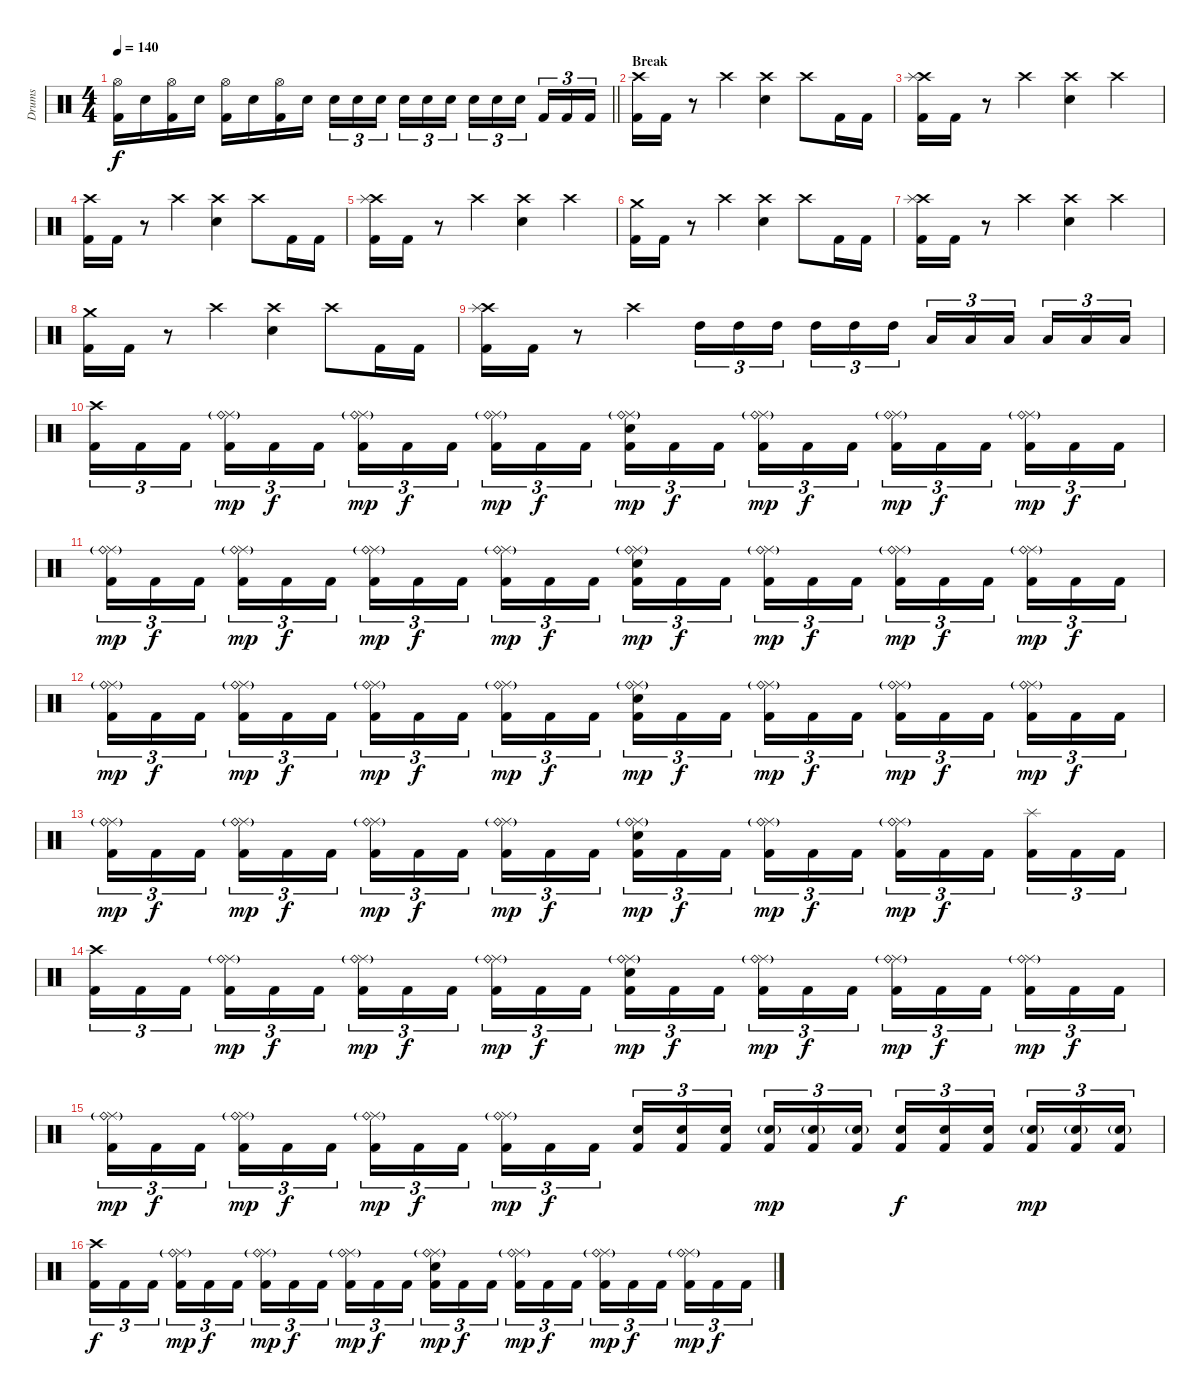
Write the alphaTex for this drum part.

\track ("Drums" "Drums") {instrument percussion}
\staff {score}
\articulation defaults
\ts (4 4)
\tempo 140
\clef neutral
\barLineRight lightlight
\ks c
("Hi-Hat (open)" "Kick (hit) 2").16{dy f} "Electric Snare (hit)".16 ("Hi-Hat (open)" "Kick (hit) 2").16 "Electric Snare (hit)".16 ("Hi-Hat (open)" "Kick (hit) 2").16 "Electric Snare (hit)".16 ("Hi-Hat (open)" "Kick (hit) 2").16 "Electric Snare (hit)".16 "Electric Snare (hit)".16{tu (3 2)} "Electric Snare (hit)".16{tu (3 2)} "Electric Snare (hit)".16{tu (3 2)} "Electric Snare (hit)".16{tu (3 2)} "Electric Snare (hit)".16{tu (3 2)} "Electric Snare (hit)".16{tu (3 2)} "Electric Snare (hit)".16{tu (3 2)} "Electric Snare (hit)".16{tu (3 2)} "Electric Snare (hit)".16{tu (3 2)} "Kick (hit) 2".16{tu (3 2)} "Kick (hit) 2".16{tu (3 2)} "Kick (hit) 2".16{tu (3 2)} |
\section ("" "Break")
("Crash high (hit)" "Kick (hit) 2").16 "Kick (hit) 2".16 r.8 "Crash high (hit)".4 ("Crash high (hit)" "Electric Snare (hit)").4 "Crash high (hit)".8 "Kick (hit) 2".16 "Kick (hit) 2".16 |
("Crash high (hit)" "Splash (hit)" "Kick (hit) 2").16 "Kick (hit) 2".16 r.8 "Crash high (hit)".4 ("Crash high (hit)" "Electric Snare (hit)").4 "Crash high (hit)".4 |
("Crash high (hit)" "Kick (hit) 2").16 "Kick (hit) 2".16 r.8 "Crash high (hit)".4 ("Crash high (hit)" "Electric Snare (hit)").4 "Crash high (hit)".8 "Kick (hit) 2".16 "Kick (hit) 2".16 |
("Crash high (hit)" "Splash (hit)" "Kick (hit) 2").16 "Kick (hit) 2".16 r.8 "Crash high (hit)".4 ("Crash high (hit)" "Electric Snare (hit)").4 "Crash high (hit)".4 |
("Crash medium (hit)" "Kick (hit) 2").16 "Kick (hit) 2".16 r.8 "Crash high (hit)".4 ("Crash high (hit)" "Electric Snare (hit)").4 "Crash high (hit)".8 "Kick (hit) 2".16 "Kick (hit) 2".16 |
("Crash high (hit)" "Splash (hit)" "Kick (hit) 2").16 "Kick (hit) 2".16 r.8 "Crash high (hit)".4 ("Crash high (hit)" "Electric Snare (hit)").4 "Crash high (hit)".4 |
("Crash medium (hit)" "Kick (hit) 2").16 "Kick (hit) 2".16 r.8 "Crash high (hit)".4 ("Crash high (hit)" "Electric Snare (hit)").4 "Crash high (hit)".8 "Kick (hit) 2".16 "Kick (hit) 2".16 |
("Crash high (hit)" "Splash (hit)" "Kick (hit) 2").16 "Kick (hit) 2".16 r.8 "Crash high (hit)".4 "High Tom (hit)".16{tu (3 2)} "High Tom (hit)".16{tu (3 2)} "High Tom (hit)".16{tu (3 2)} "High Tom (hit)".16{tu (3 2)} "High Tom (hit)".16{tu (3 2)} "High Tom (hit)".16{tu (3 2)} "Low Tom (hit)".16{tu (3 2)} "Low Tom (hit)".16{tu (3 2)} "Low Tom (hit)".16{tu (3 2)} "Low Tom (hit)".16{tu (3 2)} "Low Tom (hit)".16{tu (3 2)} "Low Tom (hit)".16{tu (3 2)} |
("Crash high (hit)" "Kick (hit) 2").16{tu (3 2)} "Kick (hit) 2".16{tu (3 2)} "Kick (hit) 2".16{tu (3 2)} ("Ride (middle)" "Ride (bell)"{g} "Kick (hit) 2").16{tu (3 2) dy mp} "Kick (hit) 2".16{tu (3 2) dy f} "Kick (hit) 2".16{tu (3 2)} ("Ride (middle)" "Ride (bell)"{g} "Kick (hit) 2").16{tu (3 2) dy mp} "Kick (hit) 2".16{tu (3 2) dy f} "Kick (hit) 2".16{tu (3 2)} ("Ride (middle)" "Ride (bell)"{g} "Kick (hit) 2").16{tu (3 2) dy mp} "Kick (hit) 2".16{tu (3 2) dy f} "Kick (hit) 2".16{tu (3 2)} ("Ride (middle)" "Ride (bell)"{g} "Electric Snare (hit)" "Kick (hit) 2").16{tu (3 2) dy mp} "Kick (hit) 2".16{tu (3 2) dy f} "Kick (hit) 2".16{tu (3 2)} ("Ride (middle)" "Ride (bell)"{g} "Kick (hit) 2").16{tu (3 2) dy mp} "Kick (hit) 2".16{tu (3 2) dy f} "Kick (hit) 2".16{tu (3 2)} ("Ride (middle)" "Ride (bell)"{g} "Kick (hit) 2").16{tu (3 2) dy mp} "Kick (hit) 2".16{tu (3 2) dy f} "Kick (hit) 2".16{tu (3 2)} ("Ride (middle)" "Ride (bell)"{g} "Kick (hit) 2").16{tu (3 2) dy mp} "Kick (hit) 2".16{tu (3 2) dy f} "Kick (hit) 2".16{tu (3 2)} |
("Ride (middle)" "Ride (bell)"{g} "Kick (hit) 2").16{tu (3 2) dy mp} "Kick (hit) 2".16{tu (3 2) dy f} "Kick (hit) 2".16{tu (3 2)} ("Ride (middle)" "Ride (bell)"{g} "Kick (hit) 2").16{tu (3 2) dy mp} "Kick (hit) 2".16{tu (3 2) dy f} "Kick (hit) 2".16{tu (3 2)} ("Ride (middle)" "Ride (bell)"{g} "Kick (hit) 2").16{tu (3 2) dy mp} "Kick (hit) 2".16{tu (3 2) dy f} "Kick (hit) 2".16{tu (3 2)} ("Ride (middle)" "Ride (bell)"{g} "Kick (hit) 2").16{tu (3 2) dy mp} "Kick (hit) 2".16{tu (3 2) dy f} "Kick (hit) 2".16{tu (3 2)} ("Ride (middle)" "Ride (bell)"{g} "Electric Snare (hit)" "Kick (hit) 2").16{tu (3 2) dy mp} "Kick (hit) 2".16{tu (3 2) dy f} "Kick (hit) 2".16{tu (3 2)} ("Ride (middle)" "Ride (bell)"{g} "Kick (hit) 2").16{tu (3 2) dy mp} "Kick (hit) 2".16{tu (3 2) dy f} "Kick (hit) 2".16{tu (3 2)} ("Ride (middle)" "Ride (bell)"{g} "Kick (hit) 2").16{tu (3 2) dy mp} "Kick (hit) 2".16{tu (3 2) dy f} "Kick (hit) 2".16{tu (3 2)} ("Ride (middle)" "Ride (bell)"{g} "Kick (hit) 2").16{tu (3 2) dy mp} "Kick (hit) 2".16{tu (3 2) dy f} "Kick (hit) 2".16{tu (3 2)} |
("Ride (middle)" "Ride (bell)"{g} "Kick (hit) 2").16{tu (3 2) dy mp} "Kick (hit) 2".16{tu (3 2) dy f} "Kick (hit) 2".16{tu (3 2)} ("Ride (middle)" "Ride (bell)"{g} "Kick (hit) 2").16{tu (3 2) dy mp} "Kick (hit) 2".16{tu (3 2) dy f} "Kick (hit) 2".16{tu (3 2)} ("Ride (middle)" "Ride (bell)"{g} "Kick (hit) 2").16{tu (3 2) dy mp} "Kick (hit) 2".16{tu (3 2) dy f} "Kick (hit) 2".16{tu (3 2)} ("Ride (middle)" "Ride (bell)"{g} "Kick (hit) 2").16{tu (3 2) dy mp} "Kick (hit) 2".16{tu (3 2) dy f} "Kick (hit) 2".16{tu (3 2)} ("Ride (middle)" "Ride (bell)"{g} "Electric Snare (hit)" "Kick (hit) 2").16{tu (3 2) dy mp} "Kick (hit) 2".16{tu (3 2) dy f} "Kick (hit) 2".16{tu (3 2)} ("Ride (middle)" "Ride (bell)"{g} "Kick (hit) 2").16{tu (3 2) dy mp} "Kick (hit) 2".16{tu (3 2) dy f} "Kick (hit) 2".16{tu (3 2)} ("Ride (middle)" "Ride (bell)"{g} "Kick (hit) 2").16{tu (3 2) dy mp} "Kick (hit) 2".16{tu (3 2) dy f} "Kick (hit) 2".16{tu (3 2)} ("Ride (middle)" "Ride (bell)"{g} "Kick (hit) 2").16{tu (3 2) dy mp} "Kick (hit) 2".16{tu (3 2) dy f} "Kick (hit) 2".16{tu (3 2)} |
("Ride (middle)" "Ride (bell)"{g} "Kick (hit) 2").16{tu (3 2) dy mp} "Kick (hit) 2".16{tu (3 2) dy f} "Kick (hit) 2".16{tu (3 2)} ("Ride (middle)" "Ride (bell)"{g} "Kick (hit) 2").16{tu (3 2) dy mp} "Kick (hit) 2".16{tu (3 2) dy f} "Kick (hit) 2".16{tu (3 2)} ("Ride (middle)" "Ride (bell)"{g} "Kick (hit) 2").16{tu (3 2) dy mp} "Kick (hit) 2".16{tu (3 2) dy f} "Kick (hit) 2".16{tu (3 2)} ("Ride (middle)" "Ride (bell)"{g} "Kick (hit) 2").16{tu (3 2) dy mp} "Kick (hit) 2".16{tu (3 2) dy f} "Kick (hit) 2".16{tu (3 2)} ("Ride (middle)" "Ride (bell)"{g} "Electric Snare (hit)" "Kick (hit) 2").16{tu (3 2) dy mp} "Kick (hit) 2".16{tu (3 2) dy f} "Kick (hit) 2".16{tu (3 2)} ("Ride (middle)" "Ride (bell)"{g} "Kick (hit) 2").16{tu (3 2) dy mp} "Kick (hit) 2".16{tu (3 2) dy f} "Kick (hit) 2".16{tu (3 2)} ("Ride (middle)" "Ride (bell)"{g} "Kick (hit) 2").16{tu (3 2) dy mp} "Kick (hit) 2".16{tu (3 2) dy f} "Kick (hit) 2".16{tu (3 2)} ("Splash (hit)" "Kick (hit) 2").16{tu (3 2)} "Kick (hit) 2".16{tu (3 2)} "Kick (hit) 2".16{tu (3 2)} |
("Crash high (hit)" "Kick (hit) 2").16{tu (3 2)} "Kick (hit) 2".16{tu (3 2)} "Kick (hit) 2".16{tu (3 2)} ("Ride (middle)" "Ride (bell)"{g} "Kick (hit) 2").16{tu (3 2) dy mp} "Kick (hit) 2".16{tu (3 2) dy f} "Kick (hit) 2".16{tu (3 2)} ("Ride (middle)" "Ride (bell)"{g} "Kick (hit) 2").16{tu (3 2) dy mp} "Kick (hit) 2".16{tu (3 2) dy f} "Kick (hit) 2".16{tu (3 2)} ("Ride (middle)" "Ride (bell)"{g} "Kick (hit) 2").16{tu (3 2) dy mp} "Kick (hit) 2".16{tu (3 2) dy f} "Kick (hit) 2".16{tu (3 2)} ("Ride (middle)" "Ride (bell)"{g} "Electric Snare (hit)" "Kick (hit) 2").16{tu (3 2) dy mp} "Kick (hit) 2".16{tu (3 2) dy f} "Kick (hit) 2".16{tu (3 2)} ("Ride (middle)" "Ride (bell)"{g} "Kick (hit) 2").16{tu (3 2) dy mp} "Kick (hit) 2".16{tu (3 2) dy f} "Kick (hit) 2".16{tu (3 2)} ("Ride (middle)" "Ride (bell)"{g} "Kick (hit) 2").16{tu (3 2) dy mp} "Kick (hit) 2".16{tu (3 2) dy f} "Kick (hit) 2".16{tu (3 2)} ("Ride (middle)" "Ride (bell)"{g} "Kick (hit) 2").16{tu (3 2) dy mp} "Kick (hit) 2".16{tu (3 2) dy f} "Kick (hit) 2".16{tu (3 2)} |
("Ride (middle)" "Ride (bell)"{g} "Kick (hit) 2").16{tu (3 2) dy mp} "Kick (hit) 2".16{tu (3 2) dy f} "Kick (hit) 2".16{tu (3 2)} ("Ride (middle)" "Ride (bell)"{g} "Kick (hit) 2").16{tu (3 2) dy mp} "Kick (hit) 2".16{tu (3 2) dy f} "Kick (hit) 2".16{tu (3 2)} ("Ride (middle)" "Ride (bell)"{g} "Kick (hit) 2").16{tu (3 2) dy mp} "Kick (hit) 2".16{tu (3 2) dy f} "Kick (hit) 2".16{tu (3 2)} ("Ride (middle)" "Ride (bell)"{g} "Kick (hit) 2").16{tu (3 2) dy mp} "Kick (hit) 2".16{tu (3 2) dy f} "Kick (hit) 2".16{tu (3 2)} ("Electric Snare (hit)" "Kick (hit) 2").16{tu (3 2)} ("Electric Snare (hit)" "Kick (hit) 2").16{tu (3 2)} ("Electric Snare (hit)" "Kick (hit) 2").16{tu (3 2)} ("Electric Snare (hit)"{g} "Kick (hit) 2").16{tu (3 2) dy mp} ("Electric Snare (hit)"{g} "Kick (hit) 2").16{tu (3 2)} ("Electric Snare (hit)"{g} "Kick (hit) 2").16{tu (3 2)} ("Electric Snare (hit)" "Kick (hit) 2").16{tu (3 2) dy f} ("Electric Snare (hit)" "Kick (hit) 2").16{tu (3 2)} ("Electric Snare (hit)" "Kick (hit) 2").16{tu (3 2)} ("Electric Snare (hit)"{g} "Kick (hit) 2").16{tu (3 2) dy mp} ("Electric Snare (hit)"{g} "Kick (hit) 2").16{tu (3 2)} ("Electric Snare (hit)"{g} "Kick (hit) 2").16{tu (3 2)} |
("Crash high (hit)" "Kick (hit) 2").16{tu (3 2) dy f} "Kick (hit) 2".16{tu (3 2)} "Kick (hit) 2".16{tu (3 2)} ("Ride (middle)" "Ride (bell)"{g} "Kick (hit) 2").16{tu (3 2) dy mp} "Kick (hit) 2".16{tu (3 2) dy f} "Kick (hit) 2".16{tu (3 2)} ("Ride (middle)" "Ride (bell)"{g} "Kick (hit) 2").16{tu (3 2) dy mp} "Kick (hit) 2".16{tu (3 2) dy f} "Kick (hit) 2".16{tu (3 2)} ("Ride (middle)" "Ride (bell)"{g} "Kick (hit) 2").16{tu (3 2) dy mp} "Kick (hit) 2".16{tu (3 2) dy f} "Kick (hit) 2".16{tu (3 2)} ("Ride (middle)" "Ride (bell)"{g} "Electric Snare (hit)" "Kick (hit) 2").16{tu (3 2) dy mp} "Kick (hit) 2".16{tu (3 2) dy f} "Kick (hit) 2".16{tu (3 2)} ("Ride (middle)" "Ride (bell)"{g} "Kick (hit) 2").16{tu (3 2) dy mp} "Kick (hit) 2".16{tu (3 2) dy f} "Kick (hit) 2".16{tu (3 2)} ("Ride (middle)" "Ride (bell)"{g} "Kick (hit) 2").16{tu (3 2) dy mp} "Kick (hit) 2".16{tu (3 2) dy f} "Kick (hit) 2".16{tu (3 2)} ("Ride (middle)" "Ride (bell)"{g} "Kick (hit) 2").16{tu (3 2) dy mp} "Kick (hit) 2".16{tu (3 2) dy f} "Kick (hit) 2".16{tu (3 2)}
